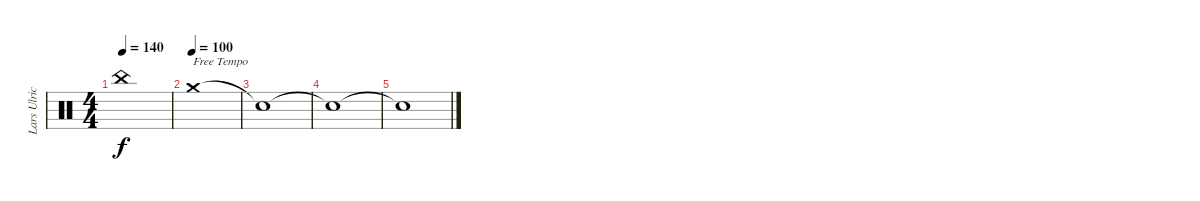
\track ("Lars Ulrich" "Lars Ulric") {instrument percussion}
\staff {score}
\articulation defaults
\ts (4 4)
\tempo 140
\clef neutral
\ks c "China (hit)".1{dy f}
|
\tempo (100)
"Crash medium (hit)".1{txt "Free Tempo"} |
"Snare (hit)"{t}.1 |
"Snare (hit)"{t}.1 |
"Snare (hit)"{t}.1
